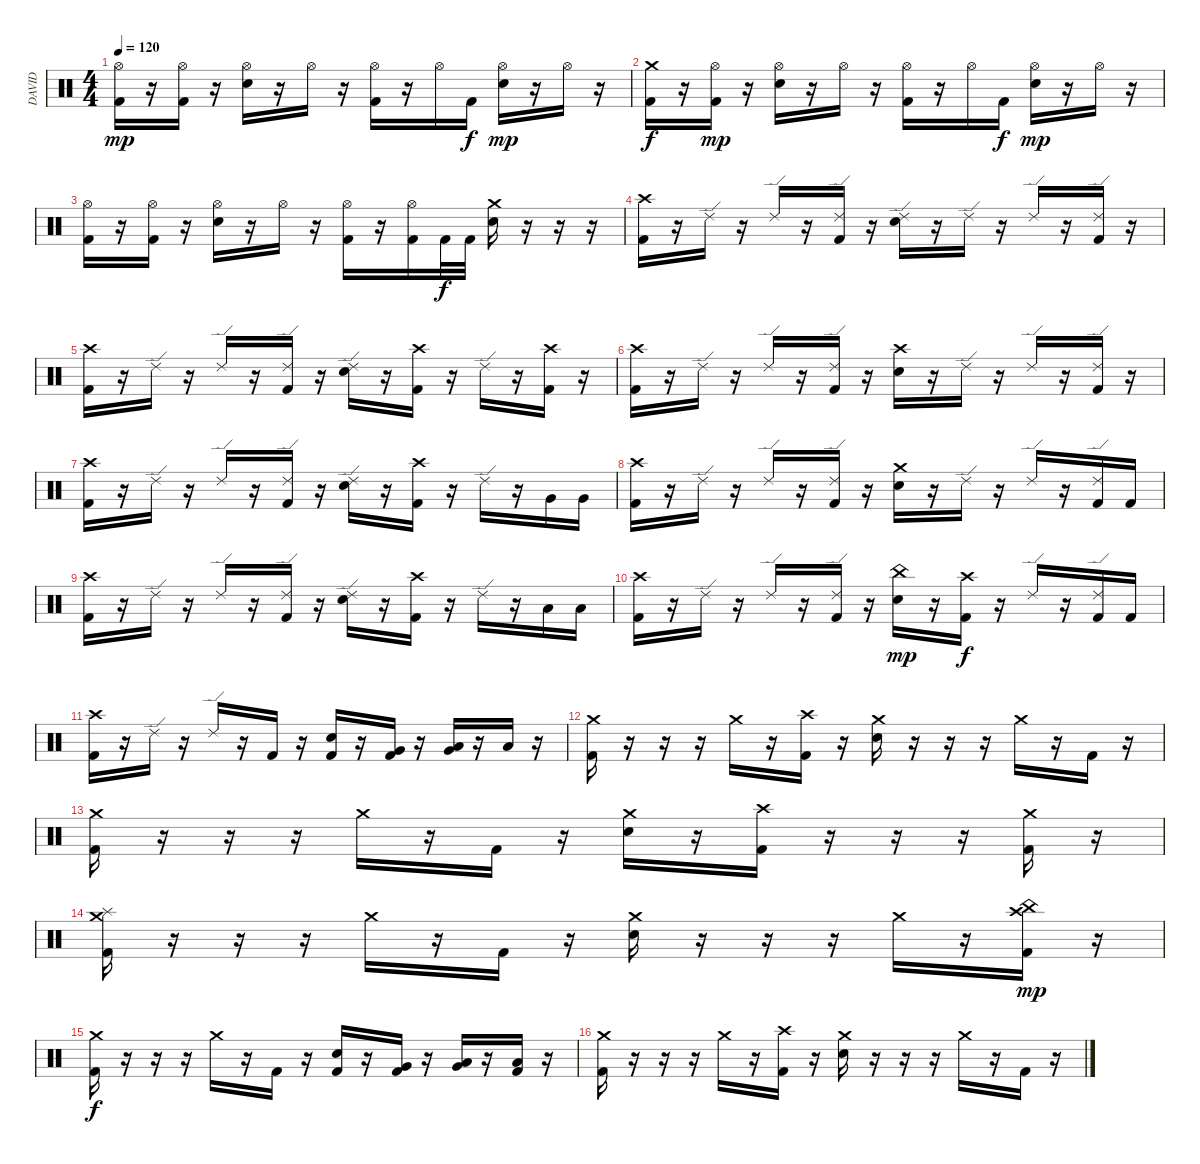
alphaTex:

\track ("DAVID" "DAVID") {instrument percussion}
\staff {score}
\articulation defaults
\ts (4 4)
\tempo 120
\clef neutral
\ks c
("Hi-Hat (open)" "Kick (hit) 2").16{dy mp} r.16 ("Hi-Hat (open)" "Kick (hit) 2").16 r.16 ("Hi-Hat (open)" "Snare (hit) 2").16 r.16 "Hi-Hat (open)".16 r.16 ("Hi-Hat (open)" "Kick (hit) 2").16 r.16 "Hi-Hat (open)".16 "Kick (hit) 2".16{dy f} ("Hi-Hat (open)" "Snare (hit) 2").16{dy mp} r.16 "Hi-Hat (open)".16 r.16 |
("Crash medium (hit)" "Kick (hit) 2").16{dy f} r.16 ("Hi-Hat (open)" "Kick (hit) 2").16{dy mp} r.16 ("Hi-Hat (open)" "Snare (hit) 2").16 r.16 "Hi-Hat (open)".16 r.16 ("Hi-Hat (open)" "Kick (hit) 2").16 r.16 "Hi-Hat (open)".16 "Kick (hit) 2".16{dy f} ("Hi-Hat (open)" "Snare (hit) 2").16{dy mp} r.16 "Hi-Hat (open)".16 r.16 |
("Hi-Hat (open)" "Kick (hit) 2").16 r.16 ("Hi-Hat (open)" "Kick (hit) 2").16 r.16 ("Hi-Hat (open)" "Snare (hit) 2").16 r.16 "Hi-Hat (open)".16 r.16 ("Hi-Hat (open)" "Kick (hit) 2").16 r.16 ("Hi-Hat (open)" "Kick (hit) 2").16 "Kick (hit) 2".32{dy f} "Kick (hit) 2".32 ("Crash medium (hit)" "Snare (hit) 2").16 r.16 r.16 r.16 |
("Crash high (hit)" "Kick (hit) 2").16 r.16 "Ride (edge) 2".16 r.16 "Ride (edge) 2".16 r.16 ("Ride (edge) 2" "Kick (hit) 2").16 r.16 ("Ride (edge) 2" "Snare (hit) 2").16 r.16 "Ride (edge) 2".16 r.16 "Ride (edge) 2".16 r.16 ("Ride (edge) 2" "Kick (hit) 2").16 r.16 |
("Crash high (hit)" "Kick (hit) 2").16 r.16 "Ride (edge) 2".16 r.16 "Ride (edge) 2".16 r.16 ("Ride (edge) 2" "Kick (hit) 2").16 r.16 ("Ride (edge) 2" "Snare (hit) 2").16 r.16 ("Crash high (hit)" "Kick (hit) 2").16 r.16 "Ride (edge) 2".16 r.16 ("Crash high (hit)" "Kick (hit) 2").16 r.16 |
("Crash high (hit)" "Kick (hit) 2").16 r.16 "Ride (edge) 2".16 r.16 "Ride (edge) 2".16 r.16 ("Ride (edge) 2" "Kick (hit) 2").16 r.16 ("Crash high (hit)" "Snare (hit) 2").16 r.16 "Ride (edge) 2".16 r.16 "Ride (edge) 2".16 r.16 ("Ride (edge) 2" "Kick (hit) 2").16 r.16 |
("Crash high (hit)" "Kick (hit) 2").16 r.16 "Ride (edge) 2".16 r.16 "Ride (edge) 2".16 r.16 ("Ride (edge) 2" "Kick (hit) 2").16 r.16 ("Ride (edge) 2" "Snare (hit) 2").16 r.16 ("Crash high (hit)" "Kick (hit) 2").16 r.16 "Ride (edge) 2".16 r.16 "Very Low Tom (hit)".16 "Very Low Tom (hit)".16 |
("Crash high (hit)" "Kick (hit) 2").16 r.16 "Ride (edge) 2".16 r.16 "Ride (edge) 2".16 r.16 ("Ride (edge) 2" "Kick (hit) 2").16 r.16 ("Crash medium (hit)" "Snare (hit) 2").16 r.16 "Ride (edge) 2".16 r.16 "Ride (edge) 2".16 r.16 ("Ride (edge) 2" "Kick (hit) 2").16 "Kick (hit) 2".16 |
("Crash high (hit)" "Kick (hit) 2").16 r.16 "Ride (edge) 2".16 r.16 "Ride (edge) 2".16 r.16 ("Ride (edge) 2" "Kick (hit) 2").16 r.16 ("Ride (edge) 2" "Snare (hit) 2").16 r.16 ("Crash high (hit)" "Kick (hit) 2").16 r.16 "Ride (edge) 2".16 r.16 "Low Floor Tom (hit)".16 "Low Floor Tom (hit)".16 |
("Crash high (hit)" "Kick (hit) 2").16 r.16 "Ride (edge) 2".16 r.16 "Ride (edge) 2".16 r.16 ("Ride (edge) 2" "Kick (hit) 2").16 r.16 ("China (hit)" "Snare (hit) 2").16{dy mp} r.16 ("Crash high (hit)" "Kick (hit) 2").16{dy f} r.16 "Ride (edge) 2".16 r.16 ("Ride (edge) 2" "Kick (hit) 2").16 "Kick (hit) 2".16 |
("Crash high (hit)" "Kick (hit) 2").16 r.16 "Ride (edge) 2".16 r.16 "Ride (edge) 2".16 r.16 "Kick (hit) 2".16 r.16 ("Snare (hit) 2" "Kick (hit) 2").16 r.16 ("Very Low Tom (hit)" "Kick (hit) 2").16 r.16 ("Low Floor Tom (hit)" "Very Low Tom (hit)").16 r.16 "Low Floor Tom (hit)".16 r.16 |
("Crash medium (hit)" "Kick (hit) 2").16 r.16 r.16 r.16 "Crash medium (hit)".16 r.16 ("Crash high (hit)" "Kick (hit) 2").16 r.16 ("Crash medium (hit)" "Snare (hit) 2").16 r.16 r.16 r.16 "Crash medium (hit)".16 r.16 "Kick (hit) 2".16 r.16 |
("Crash medium (hit)" "Kick (hit) 2").16 r.16 r.16 r.16 "Crash medium (hit)".16 r.16 "Kick (hit) 2".16 r.16 ("Crash medium (hit)" "Snare (hit) 2").16 r.16 ("Crash high (hit)" "Kick (hit) 2").16 r.16 r.16 r.16 ("Crash medium (hit)" "Kick (hit) 2").16 r.16 |
("Crash medium (hit)" "Splash (hit)" "Kick (hit) 2").16 r.16 r.16 r.16 "Crash medium (hit)".16 r.16 "Kick (hit) 2".16 r.16 ("Crash medium (hit)" "Snare (hit) 2").16 r.16 r.16 r.16 "Crash medium (hit)".16 r.16 ("Crash high (hit)" "China (hit)" "Kick (hit) 2").16{dy mp} r.16 |
("Crash medium (hit)" "Kick (hit) 2").16{dy f} r.16 r.16 r.16 "Crash medium (hit)".16 r.16 "Kick (hit) 2".16 r.16 ("Snare (hit) 2" "Kick (hit) 2").16 r.16 ("Very Low Tom (hit)" "Kick (hit) 2").16 r.16 ("Low Floor Tom (hit)" "Very Low Tom (hit)").16 r.16 ("Low Floor Tom (hit)" "Kick (hit) 2").16 r.16 |
("Crash medium (hit)" "Kick (hit) 2").16 r.16 r.16 r.16 "Crash medium (hit)".16 r.16 ("Crash high (hit)" "Kick (hit) 2").16 r.16 ("Crash medium (hit)" "Snare (hit) 2").16 r.16 r.16 r.16 "Crash medium (hit)".16 r.16 "Kick (hit) 2".16 r.16
